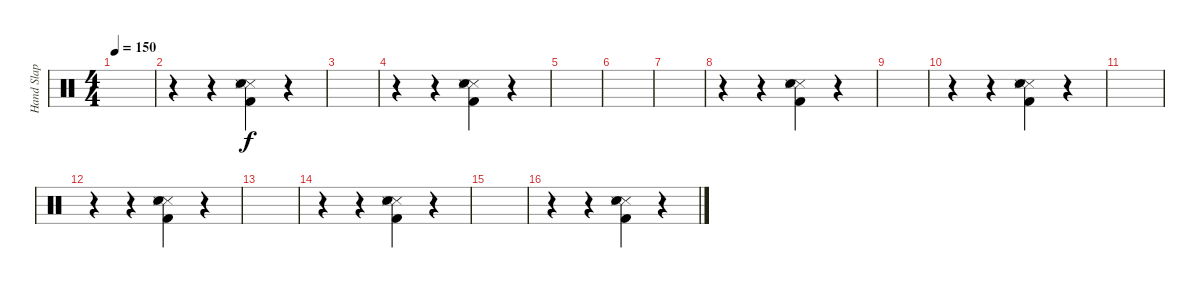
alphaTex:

\track ("Hand Slap" "Hand Slap") {instrument percussion}
\staff {score}
\articulation defaults
\ts (4 4)
\tempo 150
\clef neutral
\ks c
|
r.4 r.4 ("Snare (side stick) 3" "Kick (hit) 2" "Metronome (hit)" "Hand Clap (hit)").4 r.4 |
|
r.4 r.4 ("Snare (side stick) 3" "Kick (hit) 2" "Metronome (hit)" "Hand Clap (hit)").4 r.4 |
|
|
|
r.4 r.4 ("Snare (side stick) 3" "Kick (hit) 2" "Metronome (hit)" "Hand Clap (hit)").4 r.4 |
|
r.4 r.4 ("Snare (side stick) 3" "Kick (hit) 2" "Metronome (hit)" "Hand Clap (hit)").4 r.4 |
|
r.4 r.4 ("Snare (side stick) 3" "Kick (hit) 2" "Metronome (hit)" "Hand Clap (hit)").4 r.4 |
|
r.4 r.4 ("Snare (side stick) 3" "Kick (hit) 2" "Metronome (hit)" "Hand Clap (hit)").4 r.4 |
|
r.4 r.4 ("Snare (side stick) 3" "Kick (hit) 2" "Metronome (hit)" "Hand Clap (hit)").4 r.4
